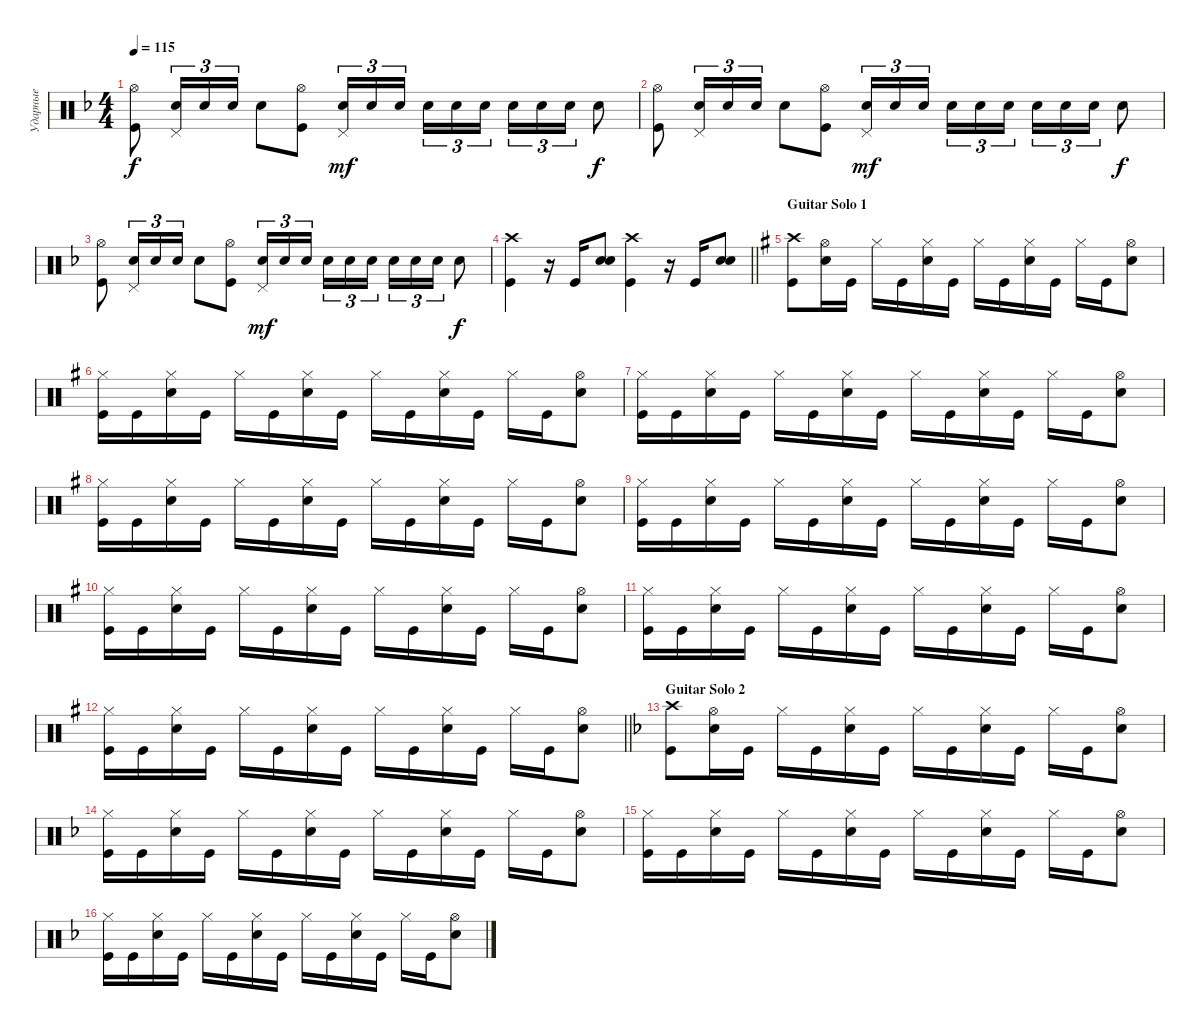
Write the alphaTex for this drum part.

\track ("Ударные" "Ударные") {instrument percussion}
\staff {score}
\articulation defaults
\ts (4 4)
\tempo 115
\clef neutral
\ks dminor
("Kick (hit)" "Hi-Hat (open)").8{dy f} ("Snare (hit) 2" "Pedal Hi-Hat (hit)").16{tu (3 2)} "Snare (hit) 2".16{tu (3 2)} "Snare (hit) 2".16{tu (3 2)} "Snare (hit) 2".8 ("Kick (hit)" "Hi-Hat (open)").8 ("Snare (hit) 2" "Pedal Hi-Hat (hit)").16{tu (3 2) dy mf} "Snare (hit) 2".16{tu (3 2)} "Snare (hit) 2".16{tu (3 2) beam splitsecondary} "Snare (hit) 2".16{tu (3 2)} "Snare (hit) 2".16{tu (3 2)} "Snare (hit) 2".16{tu (3 2)} "Snare (hit) 2".16{tu (3 2)} "Snare (hit) 2".16{tu (3 2)} "Snare (hit) 2".16{tu (3 2)} "Snare (hit) 2".8{dy f} |
("Kick (hit)" "Hi-Hat (open)").8 ("Snare (hit) 2" "Pedal Hi-Hat (hit)").16{tu (3 2)} "Snare (hit) 2".16{tu (3 2)} "Snare (hit) 2".16{tu (3 2)} "Snare (hit) 2".8 ("Kick (hit)" "Hi-Hat (open)").8 ("Snare (hit) 2" "Pedal Hi-Hat (hit)").16{tu (3 2) dy mf} "Snare (hit) 2".16{tu (3 2)} "Snare (hit) 2".16{tu (3 2) beam splitsecondary} "Snare (hit) 2".16{tu (3 2)} "Snare (hit) 2".16{tu (3 2)} "Snare (hit) 2".16{tu (3 2)} "Snare (hit) 2".16{tu (3 2)} "Snare (hit) 2".16{tu (3 2)} "Snare (hit) 2".16{tu (3 2)} "Snare (hit) 2".8{dy f} |
("Kick (hit)" "Hi-Hat (open)").8 ("Snare (hit) 2" "Pedal Hi-Hat (hit)").16{tu (3 2)} "Snare (hit) 2".16{tu (3 2)} "Snare (hit) 2".16{tu (3 2)} "Snare (hit) 2".8 ("Kick (hit)" "Hi-Hat (open)").8 ("Snare (hit) 2" "Pedal Hi-Hat (hit)").16{tu (3 2) dy mf} "Snare (hit) 2".16{tu (3 2)} "Snare (hit) 2".16{tu (3 2) beam splitsecondary} "Snare (hit) 2".16{tu (3 2)} "Snare (hit) 2".16{tu (3 2)} "Snare (hit) 2".16{tu (3 2)} "Snare (hit) 2".16{tu (3 2)} "Snare (hit) 2".16{tu (3 2)} "Snare (hit) 2".16{tu (3 2)} "Snare (hit) 2".8{dy f} |
\barLineRight lightlight
("Kick (hit)" "Crash high (hit)").4 r.16 "Kick (hit)".16 ("Snare (hit) 2" "Snare (hit) 2").8{bd 480} ("Kick (hit)" "Crash high (hit)").4 r.16 "Kick (hit)".16 ("Snare (hit) 2" "Snare (hit) 2").8{bd 480} |
\section ("" "Guitar Solo 1")
\ks eminor
("Kick (hit)" "Crash high (hit)").8 ("Snare (hit) 2" "Hi-Hat (open)").16 "Kick (hit)".16 "Hi-Hat (closed)".16 "Kick (hit)".16 ("Snare (hit) 2" "Hi-Hat (closed)").16 "Kick (hit)".16 "Hi-Hat (closed)".16 "Kick (hit)".16 ("Snare (hit) 2" "Hi-Hat (closed)").16 "Kick (hit)".16 "Hi-Hat (closed)".16 "Kick (hit)".16 ("Snare (hit) 2" "Hi-Hat (open)").8 |
("Hi-Hat (closed)" "Kick (hit)").16 "Kick (hit)".16 ("Snare (hit) 2" "Hi-Hat (closed)").16 "Kick (hit)".16 "Hi-Hat (closed)".16 "Kick (hit)".16 ("Snare (hit) 2" "Hi-Hat (closed)").16 "Kick (hit)".16 "Hi-Hat (closed)".16 "Kick (hit)".16 ("Snare (hit) 2" "Hi-Hat (closed)").16 "Kick (hit)".16 "Hi-Hat (closed)".16 "Kick (hit)".16 ("Snare (hit) 2" "Hi-Hat (open)").8 |
("Hi-Hat (closed)" "Kick (hit)").16 "Kick (hit)".16 ("Snare (hit) 2" "Hi-Hat (closed)").16 "Kick (hit)".16 "Hi-Hat (closed)".16 "Kick (hit)".16 ("Snare (hit) 2" "Hi-Hat (closed)").16 "Kick (hit)".16 "Hi-Hat (closed)".16 "Kick (hit)".16 ("Snare (hit) 2" "Hi-Hat (closed)").16 "Kick (hit)".16 "Hi-Hat (closed)".16 "Kick (hit)".16 ("Snare (hit) 2" "Hi-Hat (open)").8 |
("Hi-Hat (closed)" "Kick (hit)").16 "Kick (hit)".16 ("Snare (hit) 2" "Hi-Hat (closed)").16 "Kick (hit)".16 "Hi-Hat (closed)".16 "Kick (hit)".16 ("Snare (hit) 2" "Hi-Hat (closed)").16 "Kick (hit)".16 "Hi-Hat (closed)".16 "Kick (hit)".16 ("Snare (hit) 2" "Hi-Hat (closed)").16 "Kick (hit)".16 "Hi-Hat (closed)".16 "Kick (hit)".16 ("Snare (hit) 2" "Hi-Hat (open)").8 |
("Hi-Hat (closed)" "Kick (hit)").16 "Kick (hit)".16 ("Snare (hit) 2" "Hi-Hat (closed)").16 "Kick (hit)".16 "Hi-Hat (closed)".16 "Kick (hit)".16 ("Snare (hit) 2" "Hi-Hat (closed)").16 "Kick (hit)".16 "Hi-Hat (closed)".16 "Kick (hit)".16 ("Snare (hit) 2" "Hi-Hat (closed)").16 "Kick (hit)".16 "Hi-Hat (closed)".16 "Kick (hit)".16 ("Snare (hit) 2" "Hi-Hat (open)").8 |
("Hi-Hat (closed)" "Kick (hit)").16 "Kick (hit)".16 ("Snare (hit) 2" "Hi-Hat (closed)").16 "Kick (hit)".16 "Hi-Hat (closed)".16 "Kick (hit)".16 ("Snare (hit) 2" "Hi-Hat (closed)").16 "Kick (hit)".16 "Hi-Hat (closed)".16 "Kick (hit)".16 ("Snare (hit) 2" "Hi-Hat (closed)").16 "Kick (hit)".16 "Hi-Hat (closed)".16 "Kick (hit)".16 ("Snare (hit) 2" "Hi-Hat (open)").8 |
("Hi-Hat (closed)" "Kick (hit)").16 "Kick (hit)".16 ("Snare (hit) 2" "Hi-Hat (closed)").16 "Kick (hit)".16 "Hi-Hat (closed)".16 "Kick (hit)".16 ("Snare (hit) 2" "Hi-Hat (closed)").16 "Kick (hit)".16 "Hi-Hat (closed)".16 "Kick (hit)".16 ("Snare (hit) 2" "Hi-Hat (closed)").16 "Kick (hit)".16 "Hi-Hat (closed)".16 "Kick (hit)".16 ("Snare (hit) 2" "Hi-Hat (open)").8 |
\barLineRight lightlight
("Hi-Hat (closed)" "Kick (hit)").16 "Kick (hit)".16 ("Snare (hit) 2" "Hi-Hat (closed)").16 "Kick (hit)".16 "Hi-Hat (closed)".16 "Kick (hit)".16 ("Snare (hit) 2" "Hi-Hat (closed)").16 "Kick (hit)".16 "Hi-Hat (closed)".16 "Kick (hit)".16 ("Snare (hit) 2" "Hi-Hat (closed)").16 "Kick (hit)".16 "Hi-Hat (closed)".16 "Kick (hit)".16 ("Snare (hit) 2" "Hi-Hat (open)").8 |
\section ("" "Guitar Solo 2")
\ks dminor
("Kick (hit)" "Crash high (hit)").8 ("Snare (hit) 2" "Hi-Hat (open)").16 "Kick (hit)".16 "Hi-Hat (closed)".16 "Kick (hit)".16 ("Snare (hit) 2" "Hi-Hat (closed)").16 "Kick (hit)".16 "Hi-Hat (closed)".16 "Kick (hit)".16 ("Snare (hit) 2" "Hi-Hat (closed)").16 "Kick (hit)".16 "Hi-Hat (closed)".16 "Kick (hit)".16 ("Snare (hit) 2" "Hi-Hat (open)").8 |
("Hi-Hat (closed)" "Kick (hit)").16 "Kick (hit)".16 ("Snare (hit) 2" "Hi-Hat (closed)").16 "Kick (hit)".16 "Hi-Hat (closed)".16 "Kick (hit)".16 ("Snare (hit) 2" "Hi-Hat (closed)").16 "Kick (hit)".16 "Hi-Hat (closed)".16 "Kick (hit)".16 ("Snare (hit) 2" "Hi-Hat (closed)").16 "Kick (hit)".16 "Hi-Hat (closed)".16 "Kick (hit)".16 ("Snare (hit) 2" "Hi-Hat (open)").8 |
("Hi-Hat (closed)" "Kick (hit)").16 "Kick (hit)".16 ("Snare (hit) 2" "Hi-Hat (closed)").16 "Kick (hit)".16 "Hi-Hat (closed)".16 "Kick (hit)".16 ("Snare (hit) 2" "Hi-Hat (closed)").16 "Kick (hit)".16 "Hi-Hat (closed)".16 "Kick (hit)".16 ("Snare (hit) 2" "Hi-Hat (closed)").16 "Kick (hit)".16 "Hi-Hat (closed)".16 "Kick (hit)".16 ("Snare (hit) 2" "Hi-Hat (open)").8 |
("Hi-Hat (closed)" "Kick (hit)").16 "Kick (hit)".16 ("Snare (hit) 2" "Hi-Hat (closed)").16 "Kick (hit)".16 "Hi-Hat (closed)".16 "Kick (hit)".16 ("Snare (hit) 2" "Hi-Hat (closed)").16 "Kick (hit)".16 "Hi-Hat (closed)".16 "Kick (hit)".16 ("Snare (hit) 2" "Hi-Hat (closed)").16 "Kick (hit)".16 "Hi-Hat (closed)".16 "Kick (hit)".16 ("Snare (hit) 2" "Hi-Hat (open)").8
